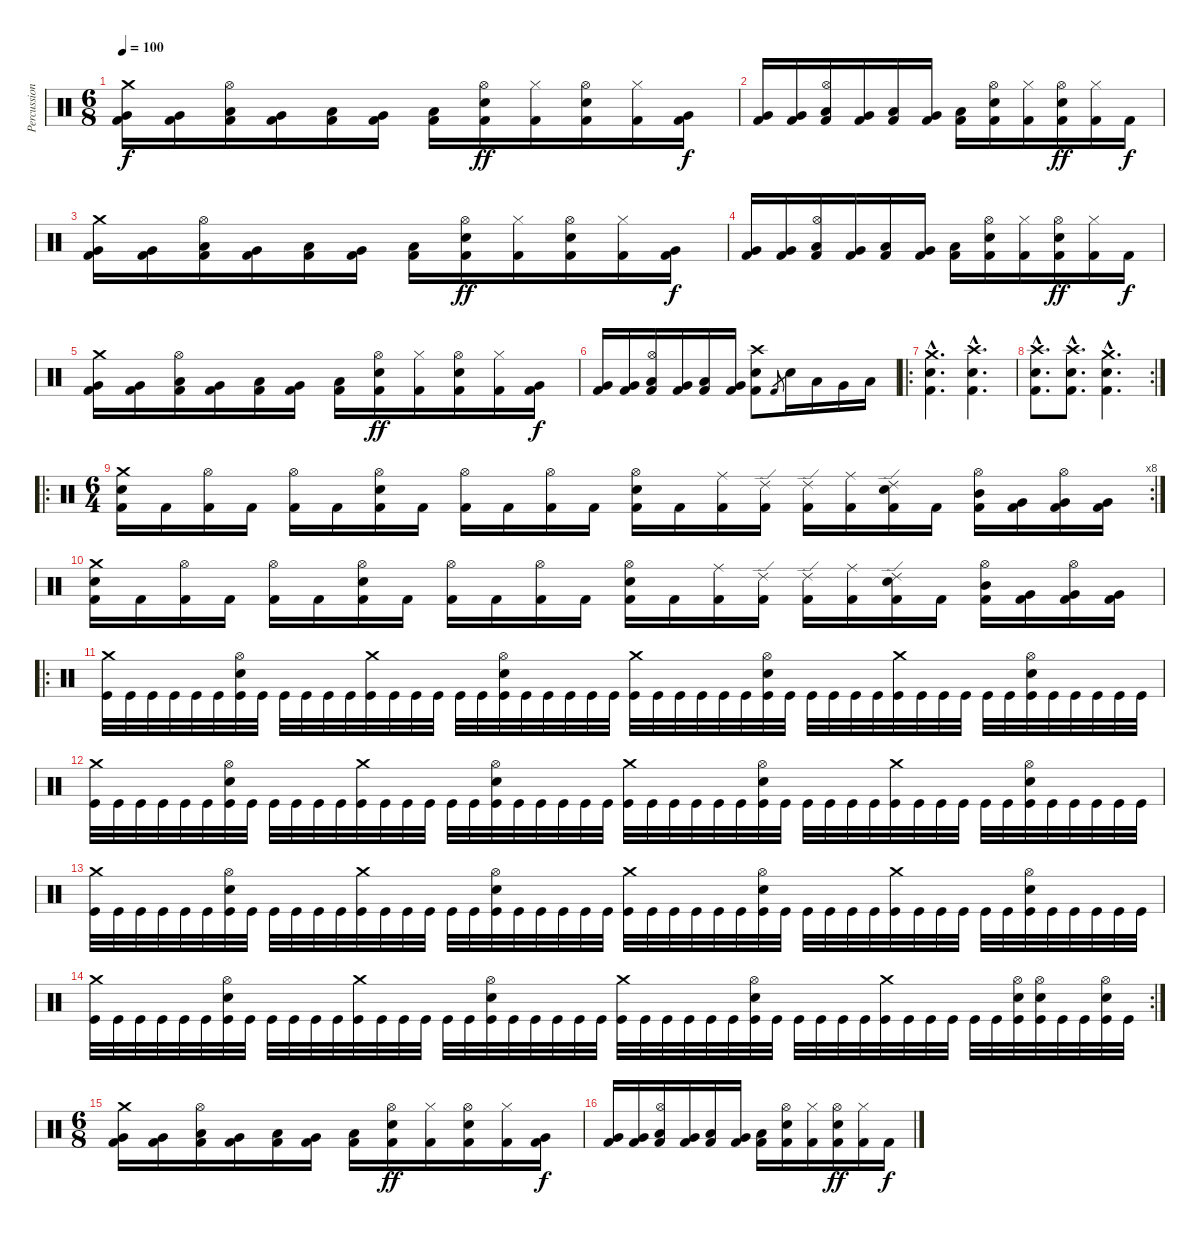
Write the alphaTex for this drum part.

\track ("Percussion" "Percussion") {instrument percussion}
\staff {score}
\articulation defaults
\ts (6 8)
\tempo 100
\clef neutral
\ks c
("Crash medium (hit)" "Very Low Tom (hit)" "Kick (hit) 2").16{dy f} ("Very Low Tom (hit)" "Kick (hit) 2").16 ("Hi-Hat (open)" "Low Tom (hit)" "Kick (hit) 2").16 ("Very Low Tom (hit)" "Kick (hit) 2").16 ("Low Tom (hit)" "Kick (hit) 2").16 ("Very Low Tom (hit)" "Kick (hit) 2").16 ("Low Tom (hit)" "Kick (hit) 2").16 ("Hi-Hat (open)" "Electric Snare (hit)" "Kick (hit) 2").16{dy ff} ("Hi-Hat (closed)" "Kick (hit) 2").16 ("Hi-Hat (open)" "Electric Snare (hit)" "Kick (hit) 2").16 ("Hi-Hat (closed)" "Kick (hit) 2").16 ("Very Low Tom (hit)" "Kick (hit) 2").16{dy f} |
("Very Low Tom (hit)" "Kick (hit) 2").16 ("Very Low Tom (hit)" "Kick (hit) 2").16 ("Hi-Hat (open)" "Low Tom (hit)" "Kick (hit) 2").16 ("Very Low Tom (hit)" "Kick (hit) 2").16 ("Low Tom (hit)" "Kick (hit) 2").16 ("Very Low Tom (hit)" "Kick (hit) 2").16 ("Low Tom (hit)" "Kick (hit) 2").16 ("Hi-Hat (open)" "Electric Snare (hit)" "Kick (hit) 2").16 ("Hi-Hat (closed)" "Kick (hit) 2").16 ("Hi-Hat (open)" "Electric Snare (hit)" "Kick (hit) 2").16{dy ff} ("Hi-Hat (closed)" "Kick (hit) 2").16 "Kick (hit) 2".16{dy f} |
("Crash medium (hit)" "Very Low Tom (hit)" "Kick (hit) 2").16 ("Very Low Tom (hit)" "Kick (hit) 2").16 ("Hi-Hat (open)" "Low Tom (hit)" "Kick (hit) 2").16 ("Very Low Tom (hit)" "Kick (hit) 2").16 ("Low Tom (hit)" "Kick (hit) 2").16 ("Very Low Tom (hit)" "Kick (hit) 2").16 ("Low Tom (hit)" "Kick (hit) 2").16 ("Hi-Hat (open)" "Electric Snare (hit)" "Kick (hit) 2").16{dy ff} ("Hi-Hat (closed)" "Kick (hit) 2").16 ("Hi-Hat (open)" "Electric Snare (hit)" "Kick (hit) 2").16 ("Hi-Hat (closed)" "Kick (hit) 2").16 ("Very Low Tom (hit)" "Kick (hit) 2").16{dy f} |
("Very Low Tom (hit)" "Kick (hit) 2").16 ("Very Low Tom (hit)" "Kick (hit) 2").16 ("Hi-Hat (open)" "Low Tom (hit)" "Kick (hit) 2").16 ("Very Low Tom (hit)" "Kick (hit) 2").16 ("Low Tom (hit)" "Kick (hit) 2").16 ("Very Low Tom (hit)" "Kick (hit) 2").16 ("Low Tom (hit)" "Kick (hit) 2").16 ("Hi-Hat (open)" "Electric Snare (hit)" "Kick (hit) 2").16 ("Hi-Hat (closed)" "Kick (hit) 2").16 ("Hi-Hat (open)" "Electric Snare (hit)" "Kick (hit) 2").16{dy ff} ("Hi-Hat (closed)" "Kick (hit) 2").16 "Kick (hit) 2".16{dy f} |
("Crash medium (hit)" "Very Low Tom (hit)" "Kick (hit) 2").16 ("Very Low Tom (hit)" "Kick (hit) 2").16 ("Hi-Hat (open)" "Low Tom (hit)" "Kick (hit) 2").16 ("Very Low Tom (hit)" "Kick (hit) 2").16 ("Low Tom (hit)" "Kick (hit) 2").16 ("Very Low Tom (hit)" "Kick (hit) 2").16 ("Low Tom (hit)" "Kick (hit) 2").16 ("Hi-Hat (open)" "Electric Snare (hit)" "Kick (hit) 2").16{dy ff} ("Hi-Hat (closed)" "Kick (hit) 2").16 ("Hi-Hat (open)" "Electric Snare (hit)" "Kick (hit) 2").16 ("Hi-Hat (closed)" "Kick (hit) 2").16 ("Very Low Tom (hit)" "Kick (hit) 2").16{dy f} |
("Very Low Tom (hit)" "Kick (hit) 2").16 ("Very Low Tom (hit)" "Kick (hit) 2").16 ("Hi-Hat (open)" "Low Tom (hit)" "Kick (hit) 2").16 ("Very Low Tom (hit)" "Kick (hit) 2").16 ("Low Tom (hit)" "Kick (hit) 2").16 ("Very Low Tom (hit)" "Kick (hit) 2").16 ("Crash high (hit)" "Electric Snare (hit)" "Kick (hit) 2").8 "Kick (hit) 2".8{gr} "Electric Snare (hit)".16 "Low Tom (hit)".16 "Very Low Tom (hit)".16 "Low Floor Tom (hit)".16 |
\ro
("Crash medium (hit)"{hac} "Electric Snare (hit)"{hac} "Kick (hit) 2"{hac}).4{d} ("Crash high (hit)"{hac} "Electric Snare (hit)"{hac} "Kick (hit) 2"{hac}).4{d} |
\rc 2
("Crash high (hit)"{hac} "Electric Snare (hit)"{hac} "Kick (hit) 2"{hac}).8{d} ("Crash high (hit)"{hac} "Electric Snare (hit)"{hac} "Kick (hit) 2"{hac}).8{d} ("Crash medium (hit)"{hac} "Electric Snare (hit)"{hac} "Kick (hit) 2"{hac}).4{d} |
\ro
\rc 8
\ts (6 4)
("Crash medium (hit)" "Electric Snare (hit)" "Kick (hit) 2").16 "Kick (hit) 2".16 ("Hi-Hat (open)" "Kick (hit) 2").16 "Kick (hit) 2".16 ("Hi-Hat (open)" "Kick (hit) 2").16 "Kick (hit) 2".16 ("Hi-Hat (open)" "Electric Snare (hit)" "Kick (hit) 2").16 "Kick (hit) 2".16 ("Hi-Hat (open)" "Kick (hit) 2").16 "Kick (hit) 2".16 ("Hi-Hat (open)" "Kick (hit) 2").16 "Kick (hit) 2".16 ("Hi-Hat (open)" "Electric Snare (hit)" "Kick (hit) 2").16 "Kick (hit) 2".16 ("Ride (middle)" "Kick (hit) 2").16 ("Ride (edge) 2" "Kick (hit) 2").16 ("Ride (edge) 2" "Kick (hit) 2").16 ("Ride (middle)" "Kick (hit) 2").16 ("Ride (edge) 2" "Electric Snare (hit)" "Kick (hit) 2").16 "Kick (hit) 2".16 ("Hi-Hat (open)" "Mid Tom (hit)" "Kick (hit) 2").16 ("Very Low Tom (hit)" "Kick (hit) 2").16 ("Hi-Hat (open)" "Very Low Tom (hit)" "Kick (hit) 2").16 ("Very Low Tom (hit)" "Kick (hit) 2").16 |
("Crash medium (hit)" "Electric Snare (hit)" "Kick (hit) 2").16 "Kick (hit) 2".16 ("Hi-Hat (open)" "Kick (hit) 2").16 "Kick (hit) 2".16 ("Hi-Hat (open)" "Kick (hit) 2").16 "Kick (hit) 2".16 ("Hi-Hat (open)" "Electric Snare (hit)" "Kick (hit) 2").16 "Kick (hit) 2".16 ("Hi-Hat (open)" "Kick (hit) 2").16 "Kick (hit) 2".16 ("Hi-Hat (open)" "Kick (hit) 2").16 "Kick (hit) 2".16 ("Hi-Hat (open)" "Electric Snare (hit)" "Kick (hit) 2").16 "Kick (hit) 2".16 ("Ride (middle)" "Kick (hit) 2").16 ("Ride (edge) 2" "Kick (hit) 2").16 ("Ride (edge) 2" "Kick (hit) 2").16 ("Ride (middle)" "Kick (hit) 2").16 ("Ride (edge) 2" "Electric Snare (hit)" "Kick (hit) 2").16 "Kick (hit) 2".16 ("Hi-Hat (open)" "Mid Tom (hit)" "Kick (hit) 2").16 ("Very Low Tom (hit)" "Kick (hit) 2").16 ("Hi-Hat (open)" "Very Low Tom (hit)" "Kick (hit) 2").16 ("Very Low Tom (hit)" "Kick (hit) 2").16 |
\ro
("Crash medium (hit)" "Kick (hit)").32 "Kick (hit)".32 "Kick (hit)".32 "Kick (hit)".32 "Kick (hit)".32 "Kick (hit)".32 ("Electric Snare (hit)" "Hi-Hat (open)" "Kick (hit)").32 "Kick (hit)".32 "Kick (hit)".32 "Kick (hit)".32 "Kick (hit)".32 "Kick (hit)".32 ("Crash medium (hit)" "Kick (hit)").32 "Kick (hit)".32 "Kick (hit)".32 "Kick (hit)".32 "Kick (hit)".32 "Kick (hit)".32 ("Electric Snare (hit)" "Hi-Hat (open)" "Kick (hit)").32 "Kick (hit)".32 "Kick (hit)".32 "Kick (hit)".32 "Kick (hit)".32 "Kick (hit)".32 ("Crash medium (hit)" "Kick (hit)").32 "Kick (hit)".32 "Kick (hit)".32 "Kick (hit)".32 "Kick (hit)".32 "Kick (hit)".32 ("Electric Snare (hit)" "Hi-Hat (open)" "Kick (hit)").32 "Kick (hit)".32 "Kick (hit)".32 "Kick (hit)".32 "Kick (hit)".32 "Kick (hit)".32 ("Crash medium (hit)" "Kick (hit)").32 "Kick (hit)".32 "Kick (hit)".32 "Kick (hit)".32 "Kick (hit)".32 "Kick (hit)".32 ("Electric Snare (hit)" "Hi-Hat (open)" "Kick (hit)").32 "Kick (hit)".32 "Kick (hit)".32 "Kick (hit)".32 "Kick (hit)".32 "Kick (hit)".32 |
("Crash medium (hit)" "Kick (hit)").32 "Kick (hit)".32 "Kick (hit)".32 "Kick (hit)".32 "Kick (hit)".32 "Kick (hit)".32 ("Electric Snare (hit)" "Hi-Hat (open)" "Kick (hit)").32 "Kick (hit)".32 "Kick (hit)".32 "Kick (hit)".32 "Kick (hit)".32 "Kick (hit)".32 ("Crash medium (hit)" "Kick (hit)").32 "Kick (hit)".32 "Kick (hit)".32 "Kick (hit)".32 "Kick (hit)".32 "Kick (hit)".32 ("Electric Snare (hit)" "Hi-Hat (open)" "Kick (hit)").32 "Kick (hit)".32 "Kick (hit)".32 "Kick (hit)".32 "Kick (hit)".32 "Kick (hit)".32 ("Crash medium (hit)" "Kick (hit)").32 "Kick (hit)".32 "Kick (hit)".32 "Kick (hit)".32 "Kick (hit)".32 "Kick (hit)".32 ("Electric Snare (hit)" "Hi-Hat (open)" "Kick (hit)").32 "Kick (hit)".32 "Kick (hit)".32 "Kick (hit)".32 "Kick (hit)".32 "Kick (hit)".32 ("Crash medium (hit)" "Kick (hit)").32 "Kick (hit)".32 "Kick (hit)".32 "Kick (hit)".32 "Kick (hit)".32 "Kick (hit)".32 ("Electric Snare (hit)" "Hi-Hat (open)" "Kick (hit)").32 "Kick (hit)".32 "Kick (hit)".32 "Kick (hit)".32 "Kick (hit)".32 "Kick (hit)".32 |
("Crash medium (hit)" "Kick (hit)").32 "Kick (hit)".32 "Kick (hit)".32 "Kick (hit)".32 "Kick (hit)".32 "Kick (hit)".32 ("Electric Snare (hit)" "Hi-Hat (open)" "Kick (hit)").32 "Kick (hit)".32 "Kick (hit)".32 "Kick (hit)".32 "Kick (hit)".32 "Kick (hit)".32 ("Crash medium (hit)" "Kick (hit)").32 "Kick (hit)".32 "Kick (hit)".32 "Kick (hit)".32 "Kick (hit)".32 "Kick (hit)".32 ("Electric Snare (hit)" "Hi-Hat (open)" "Kick (hit)").32 "Kick (hit)".32 "Kick (hit)".32 "Kick (hit)".32 "Kick (hit)".32 "Kick (hit)".32 ("Crash medium (hit)" "Kick (hit)").32 "Kick (hit)".32 "Kick (hit)".32 "Kick (hit)".32 "Kick (hit)".32 "Kick (hit)".32 ("Electric Snare (hit)" "Hi-Hat (open)" "Kick (hit)").32 "Kick (hit)".32 "Kick (hit)".32 "Kick (hit)".32 "Kick (hit)".32 "Kick (hit)".32 ("Crash medium (hit)" "Kick (hit)").32 "Kick (hit)".32 "Kick (hit)".32 "Kick (hit)".32 "Kick (hit)".32 "Kick (hit)".32 ("Electric Snare (hit)" "Hi-Hat (open)" "Kick (hit)").32 "Kick (hit)".32 "Kick (hit)".32 "Kick (hit)".32 "Kick (hit)".32 "Kick (hit)".32 |
\rc 2
("Crash medium (hit)" "Kick (hit)").32 "Kick (hit)".32 "Kick (hit)".32 "Kick (hit)".32 "Kick (hit)".32 "Kick (hit)".32 ("Electric Snare (hit)" "Hi-Hat (open)" "Kick (hit)").32 "Kick (hit)".32 "Kick (hit)".32 "Kick (hit)".32 "Kick (hit)".32 "Kick (hit)".32 ("Crash medium (hit)" "Kick (hit)").32 "Kick (hit)".32 "Kick (hit)".32 "Kick (hit)".32 "Kick (hit)".32 "Kick (hit)".32 ("Electric Snare (hit)" "Hi-Hat (open)" "Kick (hit)").32 "Kick (hit)".32 "Kick (hit)".32 "Kick (hit)".32 "Kick (hit)".32 "Kick (hit)".32 ("Crash medium (hit)" "Kick (hit)").32 "Kick (hit)".32 "Kick (hit)".32 "Kick (hit)".32 "Kick (hit)".32 "Kick (hit)".32 ("Electric Snare (hit)" "Hi-Hat (open)" "Kick (hit)").32 "Kick (hit)".32 "Kick (hit)".32 "Kick (hit)".32 "Kick (hit)".32 "Kick (hit)".32 ("Crash medium (hit)" "Kick (hit)").32 "Kick (hit)".32 "Kick (hit)".32 "Kick (hit)".32 "Kick (hit)".32 "Kick (hit)".32 ("Electric Snare (hit)" "Hi-Hat (open)" "Kick (hit)").32 ("Electric Snare (hit)" "Hi-Hat (open)" "Kick (hit)").32 "Kick (hit)".32 "Kick (hit)".32 ("Hi-Hat (open)" "Electric Snare (hit)" "Kick (hit)").32 "Kick (hit)".32 |
\ts (6 8)
("Crash medium (hit)" "Very Low Tom (hit)" "Kick (hit) 2").16 ("Very Low Tom (hit)" "Kick (hit) 2").16 ("Hi-Hat (open)" "Low Tom (hit)" "Kick (hit) 2").16 ("Very Low Tom (hit)" "Kick (hit) 2").16 ("Low Tom (hit)" "Kick (hit) 2").16 ("Very Low Tom (hit)" "Kick (hit) 2").16 ("Low Tom (hit)" "Kick (hit) 2").16 ("Hi-Hat (open)" "Electric Snare (hit)" "Kick (hit) 2").16{dy ff} ("Hi-Hat (closed)" "Kick (hit) 2").16 ("Hi-Hat (open)" "Electric Snare (hit)" "Kick (hit) 2").16 ("Hi-Hat (closed)" "Kick (hit) 2").16 ("Very Low Tom (hit)" "Kick (hit) 2").16{dy f} |
("Very Low Tom (hit)" "Kick (hit) 2").16 ("Very Low Tom (hit)" "Kick (hit) 2").16 ("Hi-Hat (open)" "Low Tom (hit)" "Kick (hit) 2").16 ("Very Low Tom (hit)" "Kick (hit) 2").16 ("Low Tom (hit)" "Kick (hit) 2").16 ("Very Low Tom (hit)" "Kick (hit) 2").16 ("Low Tom (hit)" "Kick (hit) 2").16 ("Hi-Hat (open)" "Electric Snare (hit)" "Kick (hit) 2").16 ("Hi-Hat (closed)" "Kick (hit) 2").16 ("Hi-Hat (open)" "Electric Snare (hit)" "Kick (hit) 2").16{dy ff} ("Hi-Hat (closed)" "Kick (hit) 2").16 "Kick (hit) 2".16{dy f}
